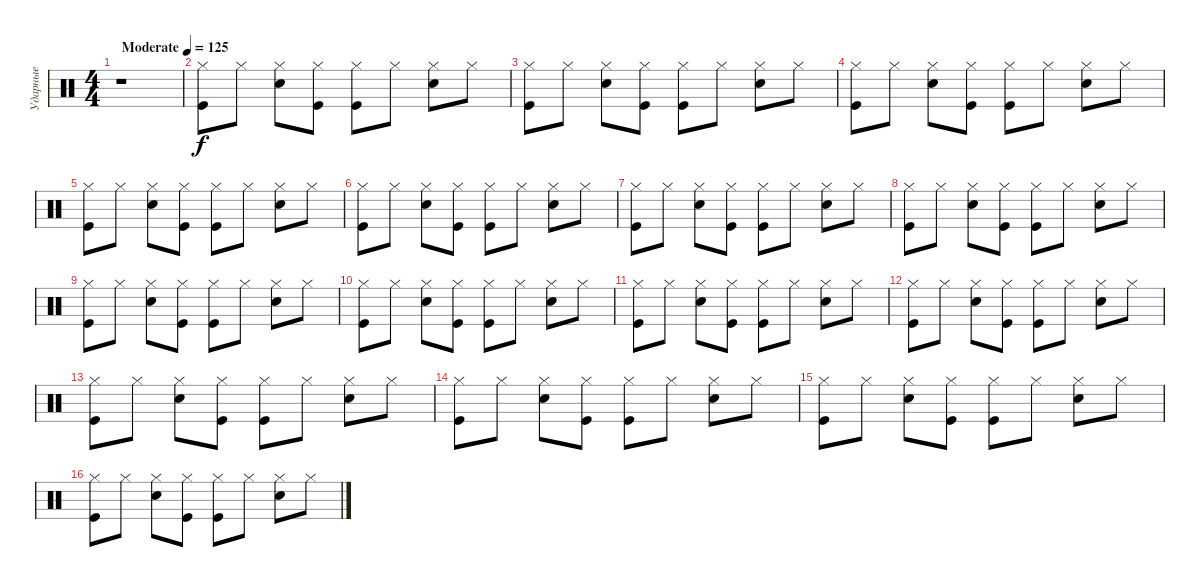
\track ("Ударные" "Ударные") {instrument percussion}
\staff {score}
\articulation defaults
\ts (4 4)
\tempo (125 "Moderate")
\clef neutral
\ks c
r.1{dy f} |
("Hi-Hat (closed)" "Kick (hit)").8 "Hi-Hat (closed)".8 ("Hi-Hat (closed)" "Snare (hit) 2").8 ("Hi-Hat (closed)" "Kick (hit)").8 ("Hi-Hat (closed)" "Kick (hit)").8 "Hi-Hat (closed)".8 ("Hi-Hat (closed)" "Snare (hit) 2").8 "Hi-Hat (closed)".8 |
("Hi-Hat (closed)" "Kick (hit)").8 "Hi-Hat (closed)".8 ("Hi-Hat (closed)" "Snare (hit) 2").8 ("Hi-Hat (closed)" "Kick (hit)").8 ("Hi-Hat (closed)" "Kick (hit)").8 "Hi-Hat (closed)".8 ("Hi-Hat (closed)" "Snare (hit) 2").8 "Hi-Hat (closed)".8 |
("Hi-Hat (closed)" "Kick (hit)").8 "Hi-Hat (closed)".8 ("Hi-Hat (closed)" "Snare (hit) 2").8 ("Hi-Hat (closed)" "Kick (hit)").8 ("Hi-Hat (closed)" "Kick (hit)").8 "Hi-Hat (closed)".8 ("Hi-Hat (closed)" "Snare (hit) 2").8 "Hi-Hat (closed)".8 |
("Hi-Hat (closed)" "Kick (hit)").8 "Hi-Hat (closed)".8 ("Hi-Hat (closed)" "Snare (hit) 2").8 ("Hi-Hat (closed)" "Kick (hit)").8 ("Hi-Hat (closed)" "Kick (hit)").8 "Hi-Hat (closed)".8 ("Hi-Hat (closed)" "Snare (hit) 2").8 "Hi-Hat (closed)".8 |
("Hi-Hat (closed)" "Kick (hit)").8 "Hi-Hat (closed)".8 ("Hi-Hat (closed)" "Snare (hit) 2").8 ("Hi-Hat (closed)" "Kick (hit)").8 ("Hi-Hat (closed)" "Kick (hit)").8 "Hi-Hat (closed)".8 ("Hi-Hat (closed)" "Snare (hit) 2").8 "Hi-Hat (closed)".8 |
("Hi-Hat (closed)" "Kick (hit)").8 "Hi-Hat (closed)".8 ("Hi-Hat (closed)" "Snare (hit) 2").8 ("Hi-Hat (closed)" "Kick (hit)").8 ("Hi-Hat (closed)" "Kick (hit)").8 "Hi-Hat (closed)".8 ("Hi-Hat (closed)" "Snare (hit) 2").8 "Hi-Hat (closed)".8 |
("Hi-Hat (closed)" "Kick (hit)").8 "Hi-Hat (closed)".8 ("Hi-Hat (closed)" "Snare (hit) 2").8 ("Hi-Hat (closed)" "Kick (hit)").8 ("Hi-Hat (closed)" "Kick (hit)").8 "Hi-Hat (closed)".8 ("Hi-Hat (closed)" "Snare (hit) 2").8 "Hi-Hat (closed)".8 |
("Hi-Hat (closed)" "Kick (hit)").8 "Hi-Hat (closed)".8 ("Hi-Hat (closed)" "Snare (hit) 2").8 ("Hi-Hat (closed)" "Kick (hit)").8 ("Hi-Hat (closed)" "Kick (hit)").8 "Hi-Hat (closed)".8 ("Hi-Hat (closed)" "Snare (hit) 2").8 "Hi-Hat (closed)".8 |
("Hi-Hat (closed)" "Kick (hit)").8 "Hi-Hat (closed)".8 ("Hi-Hat (closed)" "Snare (hit) 2").8 ("Hi-Hat (closed)" "Kick (hit)").8 ("Hi-Hat (closed)" "Kick (hit)").8 "Hi-Hat (closed)".8 ("Hi-Hat (closed)" "Snare (hit) 2").8 "Hi-Hat (closed)".8 |
("Hi-Hat (closed)" "Kick (hit)").8 "Hi-Hat (closed)".8 ("Hi-Hat (closed)" "Snare (hit) 2").8 ("Hi-Hat (closed)" "Kick (hit)").8 ("Hi-Hat (closed)" "Kick (hit)").8 "Hi-Hat (closed)".8 ("Hi-Hat (closed)" "Snare (hit) 2").8 "Hi-Hat (closed)".8 |
("Hi-Hat (closed)" "Kick (hit)").8 "Hi-Hat (closed)".8 ("Hi-Hat (closed)" "Snare (hit) 2").8 ("Hi-Hat (closed)" "Kick (hit)").8 ("Hi-Hat (closed)" "Kick (hit)").8 "Hi-Hat (closed)".8 ("Hi-Hat (closed)" "Snare (hit) 2").8 "Hi-Hat (closed)".8 |
("Hi-Hat (closed)" "Kick (hit)").8 "Hi-Hat (closed)".8 ("Hi-Hat (closed)" "Snare (hit) 2").8 ("Hi-Hat (closed)" "Kick (hit)").8 ("Hi-Hat (closed)" "Kick (hit)").8 "Hi-Hat (closed)".8 ("Hi-Hat (closed)" "Snare (hit) 2").8 "Hi-Hat (closed)".8 |
("Hi-Hat (closed)" "Kick (hit)").8 "Hi-Hat (closed)".8 ("Hi-Hat (closed)" "Snare (hit) 2").8 ("Hi-Hat (closed)" "Kick (hit)").8 ("Hi-Hat (closed)" "Kick (hit)").8 "Hi-Hat (closed)".8 ("Hi-Hat (closed)" "Snare (hit) 2").8 "Hi-Hat (closed)".8 |
("Hi-Hat (closed)" "Kick (hit)").8 "Hi-Hat (closed)".8 ("Hi-Hat (closed)" "Snare (hit) 2").8 ("Hi-Hat (closed)" "Kick (hit)").8 ("Hi-Hat (closed)" "Kick (hit)").8 "Hi-Hat (closed)".8 ("Hi-Hat (closed)" "Snare (hit) 2").8 "Hi-Hat (closed)".8 |
("Hi-Hat (closed)" "Kick (hit)").8 "Hi-Hat (closed)".8 ("Hi-Hat (closed)" "Snare (hit) 2").8 ("Hi-Hat (closed)" "Kick (hit)").8 ("Hi-Hat (closed)" "Kick (hit)").8 "Hi-Hat (closed)".8 ("Hi-Hat (closed)" "Snare (hit) 2").8 "Hi-Hat (closed)".8
